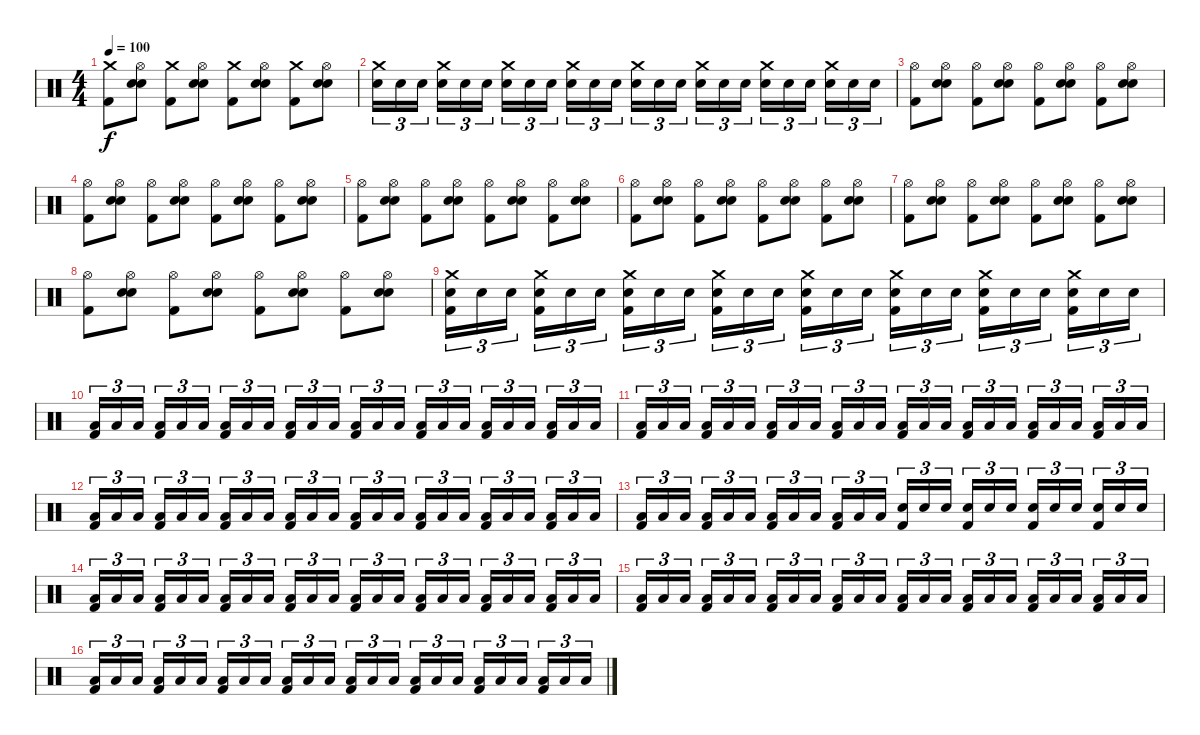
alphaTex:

\track "" {instrument percussion}
\staff {score}
\articulation defaults
\ts (4 4)
\tempo 100
\clef neutral
\ks c
("Crash medium (hit)" "Kick (hit) 2").8{dy f} ("Hi-Hat (open)" "Snare (hit) 2" "Electric Snare (hit)").8 ("Crash medium (hit)" "Kick (hit) 2").8 ("Hi-Hat (open)" "Snare (hit) 2" "Electric Snare (hit)").8 ("Crash medium (hit)" "Kick (hit) 2").8 ("Hi-Hat (open)" "Snare (hit) 2" "Electric Snare (hit)").8 ("Crash medium (hit)" "Kick (hit) 2").8 ("Hi-Hat (open)" "Snare (hit) 2" "Electric Snare (hit)").8 |
("Crash medium (hit)" "Electric Snare (hit)").16{tu (3 2)} "Electric Snare (hit)".16{tu (3 2)} "Electric Snare (hit)".16{tu (3 2)} ("Crash medium (hit)" "Electric Snare (hit)").16{tu (3 2)} "Electric Snare (hit)".16{tu (3 2)} "Electric Snare (hit)".16{tu (3 2)} ("Crash medium (hit)" "Electric Snare (hit)").16{tu (3 2)} "Electric Snare (hit)".16{tu (3 2)} "Electric Snare (hit)".16{tu (3 2)} ("Crash medium (hit)" "Electric Snare (hit)").16{tu (3 2)} "Electric Snare (hit)".16{tu (3 2)} "Electric Snare (hit)".16{tu (3 2)} ("Crash medium (hit)" "Electric Snare (hit)").16{tu (3 2)} "Electric Snare (hit)".16{tu (3 2)} "Electric Snare (hit)".16{tu (3 2)} ("Crash medium (hit)" "Electric Snare (hit)").16{tu (3 2)} "Electric Snare (hit)".16{tu (3 2)} "Electric Snare (hit)".16{tu (3 2)} ("Crash medium (hit)" "Electric Snare (hit)").16{tu (3 2)} "Electric Snare (hit)".16{tu (3 2)} "Electric Snare (hit)".16{tu (3 2)} ("Crash medium (hit)" "Electric Snare (hit)").16{tu (3 2)} "Electric Snare (hit)".16{tu (3 2)} "Electric Snare (hit)".16{tu (3 2)} |
("Hi-Hat (open)" "Kick (hit) 2").8 ("Hi-Hat (open)" "Snare (hit) 2" "Electric Snare (hit)").8 ("Hi-Hat (open)" "Kick (hit) 2").8 ("Hi-Hat (open)" "Snare (hit) 2" "Electric Snare (hit)").8 ("Hi-Hat (open)" "Kick (hit) 2").8 ("Hi-Hat (open)" "Snare (hit) 2" "Electric Snare (hit)").8 ("Hi-Hat (open)" "Kick (hit) 2").8 ("Hi-Hat (open)" "Snare (hit) 2" "Electric Snare (hit)").8 |
("Hi-Hat (open)" "Kick (hit) 2").8 ("Hi-Hat (open)" "Snare (hit) 2" "Electric Snare (hit)").8 ("Hi-Hat (open)" "Kick (hit) 2").8 ("Hi-Hat (open)" "Snare (hit) 2" "Electric Snare (hit)").8 ("Hi-Hat (open)" "Kick (hit) 2").8 ("Hi-Hat (open)" "Snare (hit) 2" "Electric Snare (hit)").8 ("Hi-Hat (open)" "Kick (hit) 2").8 ("Hi-Hat (open)" "Snare (hit) 2" "Electric Snare (hit)").8 |
("Hi-Hat (open)" "Kick (hit) 2").8 ("Hi-Hat (open)" "Snare (hit) 2" "Electric Snare (hit)").8 ("Hi-Hat (open)" "Kick (hit) 2").8 ("Hi-Hat (open)" "Snare (hit) 2" "Electric Snare (hit)").8 ("Hi-Hat (open)" "Kick (hit) 2").8 ("Hi-Hat (open)" "Snare (hit) 2" "Electric Snare (hit)").8 ("Hi-Hat (open)" "Kick (hit) 2").8 ("Hi-Hat (open)" "Snare (hit) 2" "Electric Snare (hit)").8 |
("Hi-Hat (open)" "Kick (hit) 2").8 ("Hi-Hat (open)" "Snare (hit) 2" "Electric Snare (hit)").8 ("Hi-Hat (open)" "Kick (hit) 2").8 ("Hi-Hat (open)" "Snare (hit) 2" "Electric Snare (hit)").8 ("Hi-Hat (open)" "Kick (hit) 2").8 ("Hi-Hat (open)" "Snare (hit) 2" "Electric Snare (hit)").8 ("Hi-Hat (open)" "Kick (hit) 2").8 ("Hi-Hat (open)" "Snare (hit) 2" "Electric Snare (hit)").8 |
("Hi-Hat (open)" "Kick (hit) 2").8 ("Hi-Hat (open)" "Snare (hit) 2" "Electric Snare (hit)").8 ("Hi-Hat (open)" "Kick (hit) 2").8 ("Hi-Hat (open)" "Snare (hit) 2" "Electric Snare (hit)").8 ("Hi-Hat (open)" "Kick (hit) 2").8 ("Hi-Hat (open)" "Snare (hit) 2" "Electric Snare (hit)").8 ("Hi-Hat (open)" "Kick (hit) 2").8 ("Hi-Hat (open)" "Snare (hit) 2" "Electric Snare (hit)").8 |
("Hi-Hat (open)" "Kick (hit) 2").8 ("Hi-Hat (open)" "Snare (hit) 2" "Electric Snare (hit)").8 ("Hi-Hat (open)" "Kick (hit) 2").8 ("Hi-Hat (open)" "Snare (hit) 2" "Electric Snare (hit)").8 ("Hi-Hat (open)" "Kick (hit) 2").8 ("Hi-Hat (open)" "Snare (hit) 2" "Electric Snare (hit)").8 ("Hi-Hat (open)" "Kick (hit) 2").8 ("Hi-Hat (open)" "Snare (hit) 2" "Electric Snare (hit)").8 |
("Crash medium (hit)" "Electric Snare (hit)" "Kick (hit) 2").16{tu (3 2)} "Electric Snare (hit)".16{tu (3 2)} "Electric Snare (hit)".16{tu (3 2)} ("Crash medium (hit)" "Electric Snare (hit)" "Kick (hit) 2").16{tu (3 2)} "Electric Snare (hit)".16{tu (3 2)} "Electric Snare (hit)".16{tu (3 2)} ("Crash medium (hit)" "Electric Snare (hit)" "Kick (hit) 2").16{tu (3 2)} "Electric Snare (hit)".16{tu (3 2)} "Electric Snare (hit)".16{tu (3 2)} ("Crash medium (hit)" "Electric Snare (hit)" "Kick (hit) 2").16{tu (3 2)} "Electric Snare (hit)".16{tu (3 2)} "Electric Snare (hit)".16{tu (3 2)} ("Crash medium (hit)" "Electric Snare (hit)" "Kick (hit) 2").16{tu (3 2)} "Electric Snare (hit)".16{tu (3 2)} "Electric Snare (hit)".16{tu (3 2)} ("Crash medium (hit)" "Electric Snare (hit)" "Kick (hit) 2").16{tu (3 2)} "Electric Snare (hit)".16{tu (3 2)} "Electric Snare (hit)".16{tu (3 2)} ("Crash medium (hit)" "Electric Snare (hit)" "Kick (hit) 2").16{tu (3 2)} "Electric Snare (hit)".16{tu (3 2)} "Electric Snare (hit)".16{tu (3 2)} ("Crash medium (hit)" "Electric Snare (hit)" "Kick (hit) 2").16{tu (3 2)} "Electric Snare (hit)".16{tu (3 2)} "Electric Snare (hit)".16{tu (3 2)} |
("Low Tom (hit)" "Kick (hit) 2").16{tu (3 2)} "Low Tom (hit)".16{tu (3 2)} "Low Tom (hit)".16{tu (3 2)} ("Low Tom (hit)" "Kick (hit) 2").16{tu (3 2)} "Low Tom (hit)".16{tu (3 2)} "Low Tom (hit)".16{tu (3 2)} ("Low Tom (hit)" "Kick (hit) 2").16{tu (3 2)} "Low Tom (hit)".16{tu (3 2)} "Low Tom (hit)".16{tu (3 2)} ("Low Tom (hit)" "Kick (hit) 2").16{tu (3 2)} "Low Tom (hit)".16{tu (3 2)} "Low Tom (hit)".16{tu (3 2)} ("Low Tom (hit)" "Kick (hit) 2").16{tu (3 2)} "Low Tom (hit)".16{tu (3 2)} "Low Tom (hit)".16{tu (3 2)} ("Low Tom (hit)" "Kick (hit) 2").16{tu (3 2)} "Low Tom (hit)".16{tu (3 2)} "Low Tom (hit)".16{tu (3 2)} ("Low Tom (hit)" "Kick (hit) 2").16{tu (3 2)} "Low Tom (hit)".16{tu (3 2)} "Low Tom (hit)".16{tu (3 2)} ("Low Tom (hit)" "Kick (hit) 2").16{tu (3 2)} "Low Tom (hit)".16{tu (3 2)} "Low Tom (hit)".16{tu (3 2)} |
("Low Tom (hit)" "Kick (hit) 2").16{tu (3 2)} "Low Tom (hit)".16{tu (3 2)} "Low Tom (hit)".16{tu (3 2)} ("Low Tom (hit)" "Kick (hit) 2").16{tu (3 2)} "Low Tom (hit)".16{tu (3 2)} "Low Tom (hit)".16{tu (3 2)} ("Low Tom (hit)" "Kick (hit) 2").16{tu (3 2)} "Low Tom (hit)".16{tu (3 2)} "Low Tom (hit)".16{tu (3 2)} ("Low Tom (hit)" "Kick (hit) 2").16{tu (3 2)} "Low Tom (hit)".16{tu (3 2)} "Low Tom (hit)".16{tu (3 2)} ("Low Tom (hit)" "Kick (hit) 2").16{tu (3 2)} "Low Tom (hit)".16{tu (3 2)} "Low Tom (hit)".16{tu (3 2)} ("Low Tom (hit)" "Kick (hit) 2").16{tu (3 2)} "Low Tom (hit)".16{tu (3 2)} "Low Tom (hit)".16{tu (3 2)} ("Low Tom (hit)" "Kick (hit) 2").16{tu (3 2)} "Low Tom (hit)".16{tu (3 2)} "Low Tom (hit)".16{tu (3 2)} ("Low Tom (hit)" "Kick (hit) 2").16{tu (3 2)} "Low Tom (hit)".16{tu (3 2)} "Low Tom (hit)".16{tu (3 2)} |
("Low Tom (hit)" "Kick (hit) 2").16{tu (3 2)} "Low Tom (hit)".16{tu (3 2)} "Low Tom (hit)".16{tu (3 2)} ("Low Tom (hit)" "Kick (hit) 2").16{tu (3 2)} "Low Tom (hit)".16{tu (3 2)} "Low Tom (hit)".16{tu (3 2)} ("Low Tom (hit)" "Kick (hit) 2").16{tu (3 2)} "Low Tom (hit)".16{tu (3 2)} "Low Tom (hit)".16{tu (3 2)} ("Low Tom (hit)" "Kick (hit) 2").16{tu (3 2)} "Low Tom (hit)".16{tu (3 2)} "Low Tom (hit)".16{tu (3 2)} ("Low Tom (hit)" "Kick (hit) 2").16{tu (3 2)} "Low Tom (hit)".16{tu (3 2)} "Low Tom (hit)".16{tu (3 2)} ("Low Tom (hit)" "Kick (hit) 2").16{tu (3 2)} "Low Tom (hit)".16{tu (3 2)} "Low Tom (hit)".16{tu (3 2)} ("Low Tom (hit)" "Kick (hit) 2").16{tu (3 2)} "Low Tom (hit)".16{tu (3 2)} "Low Tom (hit)".16{tu (3 2)} ("Low Tom (hit)" "Kick (hit) 2").16{tu (3 2)} "Low Tom (hit)".16{tu (3 2)} "Low Tom (hit)".16{tu (3 2)} |
("Low Tom (hit)" "Kick (hit) 2").16{tu (3 2)} "Low Tom (hit)".16{tu (3 2)} "Low Tom (hit)".16{tu (3 2)} ("Low Tom (hit)" "Kick (hit) 2").16{tu (3 2)} "Low Tom (hit)".16{tu (3 2)} "Low Tom (hit)".16{tu (3 2)} ("Low Tom (hit)" "Kick (hit) 2").16{tu (3 2)} "Low Tom (hit)".16{tu (3 2)} "Low Tom (hit)".16{tu (3 2)} ("Low Tom (hit)" "Kick (hit) 2").16{tu (3 2)} "Low Tom (hit)".16{tu (3 2)} "Low Tom (hit)".16{tu (3 2)} ("Electric Snare (hit)" "Kick (hit) 2").16{tu (3 2)} "Electric Snare (hit)".16{tu (3 2)} "Electric Snare (hit)".16{tu (3 2)} ("Electric Snare (hit)" "Kick (hit) 2").16{tu (3 2)} "Electric Snare (hit)".16{tu (3 2)} "Electric Snare (hit)".16{tu (3 2)} ("Electric Snare (hit)" "Kick (hit) 2").16{tu (3 2)} "Electric Snare (hit)".16{tu (3 2)} "Electric Snare (hit)".16{tu (3 2)} ("Electric Snare (hit)" "Kick (hit) 2").16{tu (3 2)} "Electric Snare (hit)".16{tu (3 2)} "Electric Snare (hit)".16{tu (3 2)} |
("Low Tom (hit)" "Kick (hit) 2").16{tu (3 2)} "Low Tom (hit)".16{tu (3 2)} "Low Tom (hit)".16{tu (3 2)} ("Low Tom (hit)" "Kick (hit) 2").16{tu (3 2)} "Low Tom (hit)".16{tu (3 2)} "Low Tom (hit)".16{tu (3 2)} ("Low Tom (hit)" "Kick (hit) 2").16{tu (3 2)} "Low Tom (hit)".16{tu (3 2)} "Low Tom (hit)".16{tu (3 2)} ("Low Tom (hit)" "Kick (hit) 2").16{tu (3 2)} "Low Tom (hit)".16{tu (3 2)} "Low Tom (hit)".16{tu (3 2)} ("Low Tom (hit)" "Kick (hit) 2").16{tu (3 2)} "Low Tom (hit)".16{tu (3 2)} "Low Tom (hit)".16{tu (3 2)} ("Low Tom (hit)" "Kick (hit) 2").16{tu (3 2)} "Low Tom (hit)".16{tu (3 2)} "Low Tom (hit)".16{tu (3 2)} ("Low Tom (hit)" "Kick (hit) 2").16{tu (3 2)} "Low Tom (hit)".16{tu (3 2)} "Low Tom (hit)".16{tu (3 2)} ("Low Tom (hit)" "Kick (hit) 2").16{tu (3 2)} "Low Tom (hit)".16{tu (3 2)} "Low Tom (hit)".16{tu (3 2)} |
("Low Tom (hit)" "Kick (hit) 2").16{tu (3 2)} "Low Tom (hit)".16{tu (3 2)} "Low Tom (hit)".16{tu (3 2)} ("Low Tom (hit)" "Kick (hit) 2").16{tu (3 2)} "Low Tom (hit)".16{tu (3 2)} "Low Tom (hit)".16{tu (3 2)} ("Low Tom (hit)" "Kick (hit) 2").16{tu (3 2)} "Low Tom (hit)".16{tu (3 2)} "Low Tom (hit)".16{tu (3 2)} ("Low Tom (hit)" "Kick (hit) 2").16{tu (3 2)} "Low Tom (hit)".16{tu (3 2)} "Low Tom (hit)".16{tu (3 2)} ("Low Tom (hit)" "Kick (hit) 2").16{tu (3 2)} "Low Tom (hit)".16{tu (3 2)} "Low Tom (hit)".16{tu (3 2)} ("Low Tom (hit)" "Kick (hit) 2").16{tu (3 2)} "Low Tom (hit)".16{tu (3 2)} "Low Tom (hit)".16{tu (3 2)} ("Low Tom (hit)" "Kick (hit) 2").16{tu (3 2)} "Low Tom (hit)".16{tu (3 2)} "Low Tom (hit)".16{tu (3 2)} ("Low Tom (hit)" "Kick (hit) 2").16{tu (3 2)} "Low Tom (hit)".16{tu (3 2)} "Low Tom (hit)".16{tu (3 2)} |
("Low Tom (hit)" "Kick (hit) 2").16{tu (3 2)} "Low Tom (hit)".16{tu (3 2)} "Low Tom (hit)".16{tu (3 2)} ("Low Tom (hit)" "Kick (hit) 2").16{tu (3 2)} "Low Tom (hit)".16{tu (3 2)} "Low Tom (hit)".16{tu (3 2)} ("Low Tom (hit)" "Kick (hit) 2").16{tu (3 2)} "Low Tom (hit)".16{tu (3 2)} "Low Tom (hit)".16{tu (3 2)} ("Low Tom (hit)" "Kick (hit) 2").16{tu (3 2)} "Low Tom (hit)".16{tu (3 2)} "Low Tom (hit)".16{tu (3 2)} ("Low Tom (hit)" "Kick (hit) 2").16{tu (3 2)} "Low Tom (hit)".16{tu (3 2)} "Low Tom (hit)".16{tu (3 2)} ("Low Tom (hit)" "Kick (hit) 2").16{tu (3 2)} "Low Tom (hit)".16{tu (3 2)} "Low Tom (hit)".16{tu (3 2)} ("Low Tom (hit)" "Kick (hit) 2").16{tu (3 2)} "Low Tom (hit)".16{tu (3 2)} "Low Tom (hit)".16{tu (3 2)} ("Low Tom (hit)" "Kick (hit) 2").16{tu (3 2)} "Low Tom (hit)".16{tu (3 2)} "Low Tom (hit)".16{tu (3 2)}
